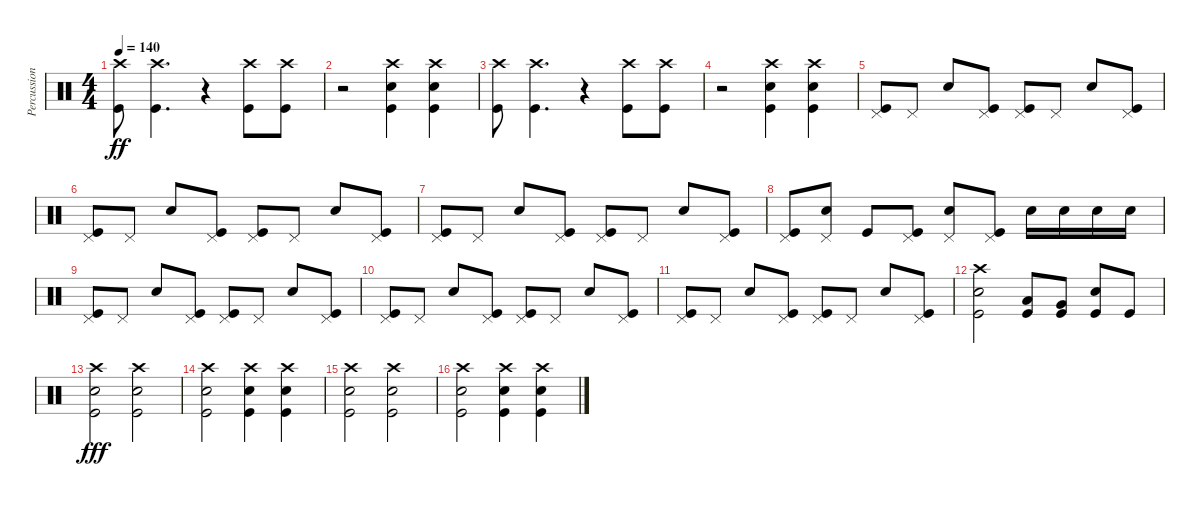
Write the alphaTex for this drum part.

\track ("Percussion" "Percussion") {instrument percussion}
\staff {score}
\articulation defaults
\ts (4 4)
\tempo 140
\clef neutral
\ks c
("Crash high (hit)" "Kick (hit)").8{dy ff} ("Crash high (hit)" "Kick (hit)").4{d} r.4 ("Crash high (hit)" "Kick (hit)").8 ("Crash high (hit)" "Kick (hit)").8 |
r.2 ("Crash high (hit)" "Kick (hit)" "Snare (hit) 2").4 ("Crash high (hit)" "Kick (hit)" "Snare (hit) 2").4 |
("Crash high (hit)" "Kick (hit)").8 ("Crash high (hit)" "Kick (hit)").4{d} r.4 ("Crash high (hit)" "Kick (hit)").8 ("Crash high (hit)" "Kick (hit)").8 |
r.2 ("Crash high (hit)" "Kick (hit)" "Snare (hit) 2").4 ("Crash high (hit)" "Kick (hit)" "Snare (hit) 2").4 |
("Pedal Hi-Hat (hit)" "Kick (hit)").8 "Pedal Hi-Hat (hit)".8 "Snare (hit) 2".8 ("Pedal Hi-Hat (hit)" "Kick (hit)").8 ("Pedal Hi-Hat (hit)" "Kick (hit)").8 "Pedal Hi-Hat (hit)".8 "Snare (hit) 2".8 ("Pedal Hi-Hat (hit)" "Kick (hit)").8 |
("Pedal Hi-Hat (hit)" "Kick (hit)").8 "Pedal Hi-Hat (hit)".8 "Snare (hit) 2".8 ("Pedal Hi-Hat (hit)" "Kick (hit)").8 ("Pedal Hi-Hat (hit)" "Kick (hit)").8 "Pedal Hi-Hat (hit)".8 "Snare (hit) 2".8 ("Pedal Hi-Hat (hit)" "Kick (hit)").8 |
("Pedal Hi-Hat (hit)" "Kick (hit)").8 "Pedal Hi-Hat (hit)".8 "Snare (hit) 2".8 ("Pedal Hi-Hat (hit)" "Kick (hit)").8 ("Pedal Hi-Hat (hit)" "Kick (hit)").8 "Pedal Hi-Hat (hit)".8 "Snare (hit) 2".8 ("Pedal Hi-Hat (hit)" "Kick (hit)").8 |
("Pedal Hi-Hat (hit)" "Kick (hit)").8 ("Pedal Hi-Hat (hit)" "Snare (hit) 2").8 "Kick (hit)".8 ("Pedal Hi-Hat (hit)" "Kick (hit)").8 ("Pedal Hi-Hat (hit)" "Snare (hit) 2").8 ("Pedal Hi-Hat (hit)" "Kick (hit)").8 "Snare (hit) 2".16 "Snare (hit) 2".16 "Snare (hit) 2".16 "Snare (hit) 2".16 |
("Pedal Hi-Hat (hit)" "Kick (hit)").8 "Pedal Hi-Hat (hit)".8 "Snare (hit) 2".8 ("Pedal Hi-Hat (hit)" "Kick (hit)").8 ("Pedal Hi-Hat (hit)" "Kick (hit)").8 "Pedal Hi-Hat (hit)".8 "Snare (hit) 2".8 ("Pedal Hi-Hat (hit)" "Kick (hit)").8 |
("Pedal Hi-Hat (hit)" "Kick (hit)").8 "Pedal Hi-Hat (hit)".8 "Snare (hit) 2".8 ("Pedal Hi-Hat (hit)" "Kick (hit)").8 ("Pedal Hi-Hat (hit)" "Kick (hit)").8 "Pedal Hi-Hat (hit)".8 "Snare (hit) 2".8 ("Pedal Hi-Hat (hit)" "Kick (hit)").8 |
("Pedal Hi-Hat (hit)" "Kick (hit)").8 "Pedal Hi-Hat (hit)".8 "Snare (hit) 2".8 ("Pedal Hi-Hat (hit)" "Kick (hit)").8 ("Pedal Hi-Hat (hit)" "Kick (hit)").8 "Pedal Hi-Hat (hit)".8 "Snare (hit) 2".8 ("Pedal Hi-Hat (hit)" "Kick (hit)").8 |
("Crash high (hit)" "Kick (hit)" "Snare (hit) 2").2 ("Kick (hit)" "Low Tom (hit)").8 ("Kick (hit)" "Very Low Tom (hit)").8 ("Kick (hit)" "Snare (hit) 2").8 "Kick (hit)".8 |
("Crash high (hit)" "Kick (hit)" "Snare (hit) 2").2{dy fff} ("Crash high (hit)" "Kick (hit)" "Snare (hit) 2").2 |
("Crash high (hit)" "Kick (hit)" "Snare (hit) 2").2 ("Crash high (hit)" "Kick (hit)" "Snare (hit) 2").4 ("Crash high (hit)" "Kick (hit)" "Snare (hit) 2").4 |
("Crash high (hit)" "Kick (hit)" "Snare (hit) 2").2 ("Crash high (hit)" "Kick (hit)" "Snare (hit) 2").2 |
("Crash high (hit)" "Kick (hit)" "Snare (hit) 2").2 ("Crash high (hit)" "Kick (hit)" "Snare (hit) 2").4 ("Crash high (hit)" "Kick (hit)" "Snare (hit) 2").4
